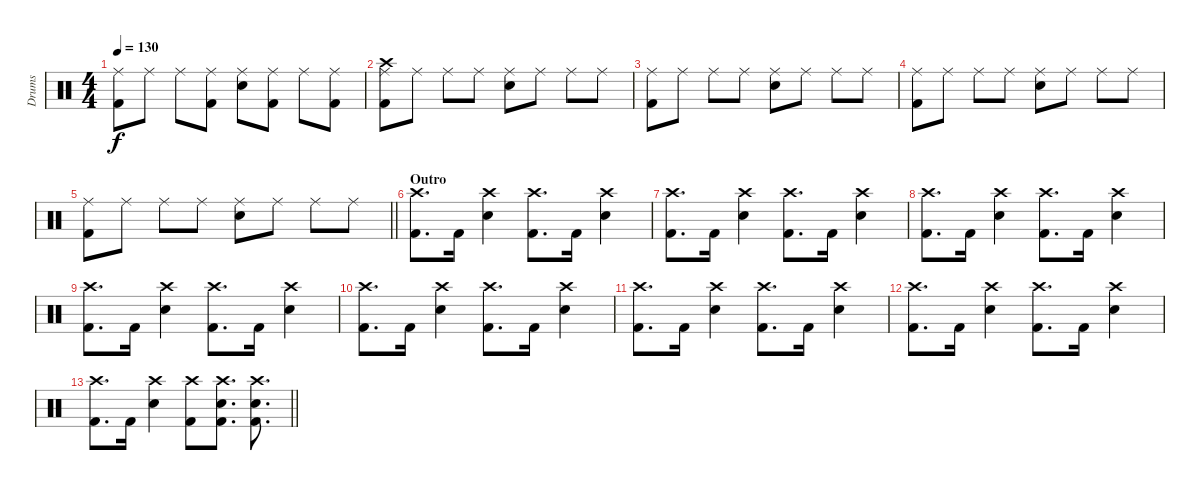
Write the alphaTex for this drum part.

\track ("Drums" "Drums") {instrument percussion}
\staff {score}
\articulation defaults
\ts (4 4)
\tempo 130
\clef neutral
\ks c
("Ride (middle)" "Kick (hit) 2").8{dy f} "Ride (middle)".8 "Ride (middle)".8 ("Ride (middle)" "Kick (hit) 2").8 ("Ride (middle)" "Snare (hit) 2").8 ("Ride (middle)" "Kick (hit) 2").8 "Ride (middle)".8 ("Ride (middle)" "Kick (hit) 2").8 |
("Ride (middle)" "Crash high (hit)" "Kick (hit) 2").8 "Ride (middle)".8 "Ride (middle)".8 "Ride (middle)".8 ("Ride (middle)" "Snare (hit) 2").8 "Ride (middle)".8 "Ride (middle)".8 "Ride (middle)".8 |
("Ride (middle)" "Kick (hit) 2").8 "Ride (middle)".8 "Ride (middle)".8 "Ride (middle)".8 ("Ride (middle)" "Snare (hit) 2").8 "Ride (middle)".8 "Ride (middle)".8 "Ride (middle)".8 |
("Ride (middle)" "Kick (hit) 2").8 "Ride (middle)".8 "Ride (middle)".8 "Ride (middle)".8 ("Ride (middle)" "Snare (hit) 2").8 "Ride (middle)".8 "Ride (middle)".8 "Ride (middle)".8 |
\barLineRight lightlight
("Ride (middle)" "Kick (hit) 2").8 "Ride (middle)".8 "Ride (middle)".8 "Ride (middle)".8 ("Ride (middle)" "Snare (hit) 2").8 "Ride (middle)".8 "Ride (middle)".8 "Ride (middle)".8 |
\section ("" "Outro")
("Crash high (hit)" "Kick (hit) 2").8{d} "Kick (hit) 2".16 ("Crash high (hit)" "Snare (hit) 2").4 ("Crash high (hit)" "Kick (hit) 2").8{d} "Kick (hit) 2".16 ("Crash high (hit)" "Snare (hit) 2").4 |
("Crash high (hit)" "Kick (hit) 2").8{d} "Kick (hit) 2".16 ("Crash high (hit)" "Snare (hit) 2").4 ("Crash high (hit)" "Kick (hit) 2").8{d} "Kick (hit) 2".16 ("Crash high (hit)" "Snare (hit) 2").4 |
("Crash high (hit)" "Kick (hit) 2").8{d} "Kick (hit) 2".16 ("Crash high (hit)" "Snare (hit) 2").4 ("Crash high (hit)" "Kick (hit) 2").8{d} "Kick (hit) 2".16 ("Crash high (hit)" "Snare (hit) 2").4 |
("Crash high (hit)" "Kick (hit) 2").8{d} "Kick (hit) 2".16 ("Crash high (hit)" "Snare (hit) 2").4 ("Crash high (hit)" "Kick (hit) 2").8{d} "Kick (hit) 2".16 ("Crash high (hit)" "Snare (hit) 2").4 |
("Crash high (hit)" "Kick (hit) 2").8{d} "Kick (hit) 2".16 ("Crash high (hit)" "Snare (hit) 2").4 ("Crash high (hit)" "Kick (hit) 2").8{d} "Kick (hit) 2".16 ("Crash high (hit)" "Snare (hit) 2").4 |
("Crash high (hit)" "Kick (hit) 2").8{d} "Kick (hit) 2".16 ("Crash high (hit)" "Snare (hit) 2").4 ("Crash high (hit)" "Kick (hit) 2").8{d} "Kick (hit) 2".16 ("Crash high (hit)" "Snare (hit) 2").4 |
("Crash high (hit)" "Kick (hit) 2").8{d} "Kick (hit) 2".16 ("Crash high (hit)" "Snare (hit) 2").4 ("Crash high (hit)" "Kick (hit) 2").8{d} "Kick (hit) 2".16 ("Crash high (hit)" "Snare (hit) 2").4 |
\barLineRight lightlight
("Crash high (hit)" "Kick (hit) 2").8{d} "Kick (hit) 2".16 ("Crash high (hit)" "Snare (hit) 2").4 ("Crash high (hit)" "Kick (hit) 2").8 ("Crash high (hit)" "Snare (hit) 2" "Kick (hit) 2").8{d} ("Crash high (hit)" "Snare (hit) 2" "Kick (hit) 2").8{d}
